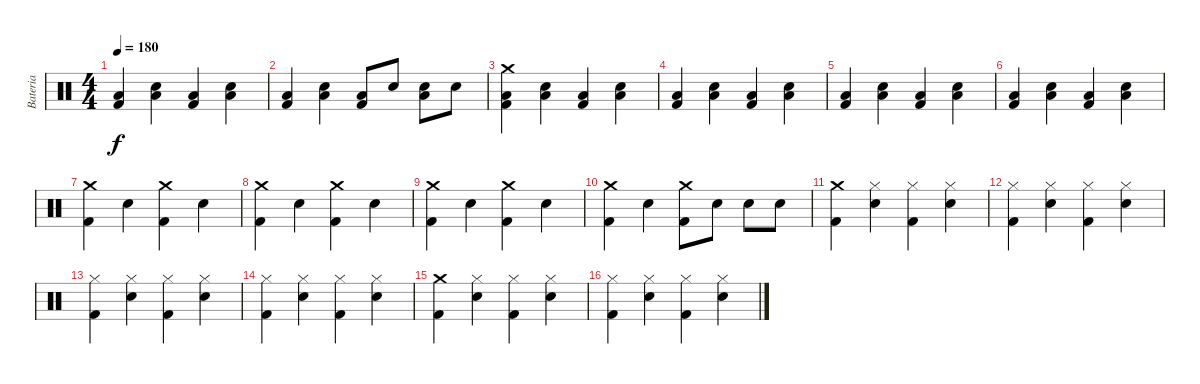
\track ("Bateria" "Bateria") {instrument percussion}
\staff {score}
\articulation defaults
\ts (4 4)
\tempo 180
\clef neutral
\ks c
("Low Tom (hit)" "Kick (hit) 2").4{dy f} ("Low Tom (hit)" "Electric Snare (hit)").4 ("Low Tom (hit)" "Kick (hit) 2").4 ("Low Tom (hit)" "Electric Snare (hit)").4 |
("Low Tom (hit)" "Kick (hit) 2").4 ("Low Tom (hit)" "Electric Snare (hit)").4 ("Low Tom (hit)" "Kick (hit) 2").8 "Electric Snare (hit)".8 ("Low Tom (hit)" "Electric Snare (hit)").8 "Electric Snare (hit)".8 |
("Low Tom (hit)" "Crash medium (hit)" "Kick (hit) 2").4 ("Low Tom (hit)" "Electric Snare (hit)").4 ("Low Tom (hit)" "Kick (hit) 2").4 ("Low Tom (hit)" "Electric Snare (hit)").4 |
("Low Tom (hit)" "Kick (hit) 2").4 ("Low Tom (hit)" "Electric Snare (hit)").4 ("Low Tom (hit)" "Kick (hit) 2").4 ("Low Tom (hit)" "Electric Snare (hit)").4 |
("Low Tom (hit)" "Kick (hit) 2").4 ("Low Tom (hit)" "Electric Snare (hit)").4 ("Low Tom (hit)" "Kick (hit) 2").4 ("Low Tom (hit)" "Electric Snare (hit)").4 |
("Low Tom (hit)" "Kick (hit) 2").4 ("Low Tom (hit)" "Electric Snare (hit)").4 ("Low Tom (hit)" "Kick (hit) 2").4 ("Low Tom (hit)" "Electric Snare (hit)").4 |
("Crash medium (hit)" "Kick (hit) 2").4 "Electric Snare (hit)".4 ("Crash medium (hit)" "Kick (hit) 2").4 "Electric Snare (hit)".4 |
("Crash medium (hit)" "Kick (hit) 2").4 "Electric Snare (hit)".4 ("Crash medium (hit)" "Kick (hit) 2").4 "Electric Snare (hit)".4 |
("Crash medium (hit)" "Kick (hit) 2").4 "Electric Snare (hit)".4 ("Crash medium (hit)" "Kick (hit) 2").4 "Electric Snare (hit)".4 |
("Crash medium (hit)" "Kick (hit) 2").4 "Electric Snare (hit)".4 ("Crash medium (hit)" "Kick (hit) 2").8 "Electric Snare (hit)".8 "Electric Snare (hit)".8 "Electric Snare (hit)".8 |
("Crash medium (hit)" "Kick (hit) 2").4 ("Hi-Hat (closed)" "Electric Snare (hit)").4 ("Hi-Hat (closed)" "Kick (hit) 2").4 ("Hi-Hat (closed)" "Electric Snare (hit)").4 |
("Hi-Hat (closed)" "Kick (hit) 2").4 ("Hi-Hat (closed)" "Electric Snare (hit)").4 ("Hi-Hat (closed)" "Kick (hit) 2").4 ("Hi-Hat (closed)" "Electric Snare (hit)").4 |
("Hi-Hat (closed)" "Kick (hit) 2").4 ("Hi-Hat (closed)" "Electric Snare (hit)").4 ("Hi-Hat (closed)" "Kick (hit) 2").4 ("Hi-Hat (closed)" "Electric Snare (hit)").4 |
("Hi-Hat (closed)" "Kick (hit) 2").4 ("Hi-Hat (closed)" "Electric Snare (hit)").4 ("Hi-Hat (closed)" "Kick (hit) 2").4 ("Hi-Hat (closed)" "Electric Snare (hit)").4 |
("Crash medium (hit)" "Kick (hit) 2").4 ("Hi-Hat (closed)" "Electric Snare (hit)").4 ("Hi-Hat (closed)" "Kick (hit) 2").4 ("Hi-Hat (closed)" "Electric Snare (hit)").4 |
("Hi-Hat (closed)" "Kick (hit) 2").4 ("Hi-Hat (closed)" "Electric Snare (hit)").4 ("Hi-Hat (closed)" "Kick (hit) 2").4 ("Hi-Hat (closed)" "Electric Snare (hit)").4
